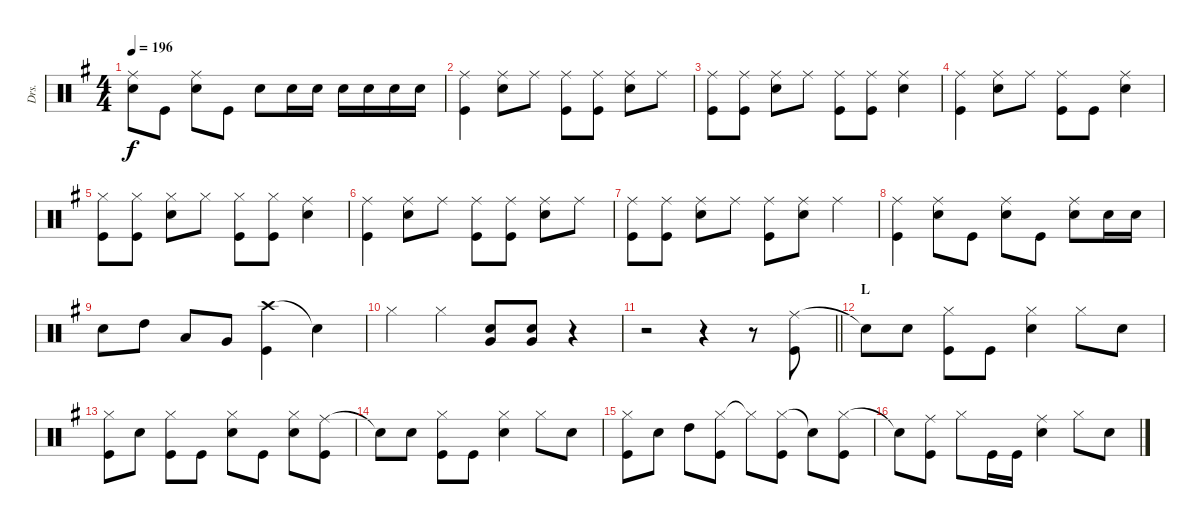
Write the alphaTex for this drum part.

\track ("Drs." "Drs.") {instrument percussion}
\staff {score}
\articulation defaults
\ts (4 4)
\tempo 196
\clef neutral
\ks g
("Ride (middle)" "Snare (hit) 2").8{dy f} "Kick (hit)".8 ("Ride (middle)" "Snare (hit) 2").8 "Kick (hit)".8 "Snare (hit) 2".8 "Snare (hit) 2".16 "Snare (hit) 2".16 "Snare (hit) 2".16 "Snare (hit) 2".16 "Snare (hit) 2".16 "Snare (hit) 2".16 |
("Ride (middle)" "Kick (hit)").4 ("Ride (middle)" "Snare (hit) 2").8 "Ride (middle)".8 ("Ride (middle)" "Kick (hit)").8 ("Ride (middle)" "Kick (hit)").8 ("Ride (middle)" "Snare (hit) 2").8 "Ride (middle)".8 |
("Ride (middle)" "Kick (hit)").8 ("Ride (middle)" "Kick (hit)").8 ("Ride (middle)" "Snare (hit) 2").8 "Ride (middle)".8 ("Ride (middle)" "Kick (hit)").8 ("Ride (middle)" "Kick (hit)").8 ("Ride (middle)" "Snare (hit) 2").4 |
("Ride (middle)" "Kick (hit)").4 ("Ride (middle)" "Snare (hit) 2").8 "Ride (middle)".8 ("Ride (middle)" "Kick (hit)").8 "Kick (hit)".8 ("Ride (middle)" "Snare (hit) 2").4 |
("Hi-Hat (closed)" "Kick (hit)").8 ("Hi-Hat (closed)" "Kick (hit)").8 ("Hi-Hat (closed)" "Snare (hit) 2").8 "Hi-Hat (closed)".8 ("Hi-Hat (closed)" "Kick (hit)").8 ("Hi-Hat (closed)" "Kick (hit)").8 ("Ride (middle)" "Snare (hit) 2").4 |
("Ride (middle)" "Kick (hit)").4 ("Ride (middle)" "Snare (hit) 2").8 "Ride (middle)".8 ("Ride (middle)" "Kick (hit)").8 ("Ride (middle)" "Kick (hit)").8 ("Ride (middle)" "Snare (hit) 2").8 "Ride (middle)".8 |
("Ride (middle)" "Kick (hit)").8 ("Ride (middle)" "Kick (hit)").8 ("Ride (middle)" "Snare (hit) 2").8 "Ride (middle)".8 ("Ride (middle)" "Kick (hit)").8 ("Ride (middle)" "Snare (hit) 2").8 "Ride (middle)".4 |
("Ride (middle)" "Kick (hit)").4 ("Ride (middle)" "Snare (hit) 2").8 "Kick (hit)".8 ("Ride (middle)" "Snare (hit) 2").8 "Kick (hit)".8 ("Ride (middle)" "Snare (hit) 2").8 "Snare (hit) 2".16 "Snare (hit) 2".16 |
"Snare (hit) 2".8 "High Tom (hit)".8 "Low Tom (hit)".8 "Very Low Tom (hit)".8 ("Crash high (hit)" "Kick (hit)").4 "Snare (hit)"{t}.4 |
"Hi-Hat (closed)".4 "Hi-Hat (closed)".4 ("Very Low Tom (hit)" "Snare (hit) 2").8 ("Very Low Tom (hit)" "Snare (hit) 2").8 r.4 |
\barLineRight lightlight
r.2 r.4 r.8 ("Ride (middle)" "Kick (hit)").8 |
\section ("" "L")
"Snare (hit)"{t}.8 "Snare (hit) 2".8 ("Hi-Hat (closed)" "Kick (hit)").8 "Kick (hit)".8 ("Hi-Hat (closed)" "Snare (hit) 2").4 "Hi-Hat (closed)".8 "Snare (hit) 2".8 |
("Hi-Hat (closed)" "Kick (hit)").8 "Snare (hit) 2".8 ("Hi-Hat (closed)" "Kick (hit)").8 "Kick (hit)".8 ("Hi-Hat (closed)" "Snare (hit) 2").8 "Kick (hit)".8 ("Hi-Hat (closed)" "Snare (hit) 2").8 ("Ride (middle)" "Kick (hit)").8 |
"Snare (hit)"{t}.8 "Snare (hit) 2".8 ("Hi-Hat (closed)" "Kick (hit)").8 "Kick (hit)".8 ("Hi-Hat (closed)" "Snare (hit) 2").4 "Hi-Hat (closed)".8 "Snare (hit) 2".8 |
("Hi-Hat (closed)" "Kick (hit)").8 "Snare (hit) 2".8 "High Tom (hit)".8 ("Hi-Hat (closed)" "Kick (hit)").8 "Hi-Hat (closed)"{t}.8 ("Hi-Hat (closed)" "Kick (hit)").8 "Snare (hit)"{t}.8 ("Hi-Hat (closed)" "Kick (hit)").8 |
"Snare (hit)"{t}.8 ("Ride (middle)" "Kick (hit)").8 "Hi-Hat (closed)".8 "Kick (hit)".16 "Kick (hit)".16 ("Ride (middle)" "Snare (hit) 2").4 "Hi-Hat (closed)".8 "Snare (hit) 2".8
